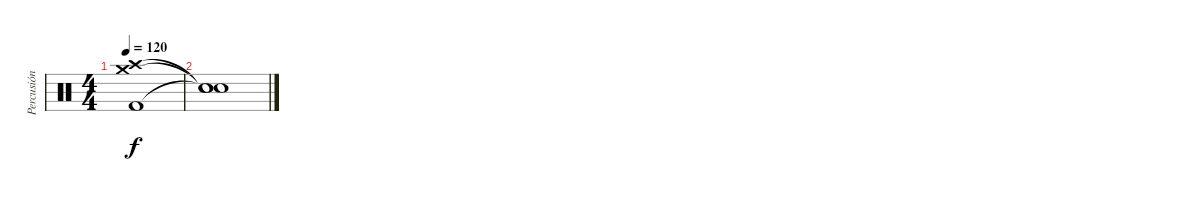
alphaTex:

\track ("Percusión" "Percusión") {instrument percussion}
\staff {score}
\articulation defaults
\ts (4 4)
\tempo 120
\clef neutral
\ks c
("Crash high (hit)" "Crash medium (hit)" "Kick (hit) 2").1{dy f} |
("Snare (hit)"{t} "Snare (hit)"{t} "Snare (hit)"{t}).1
